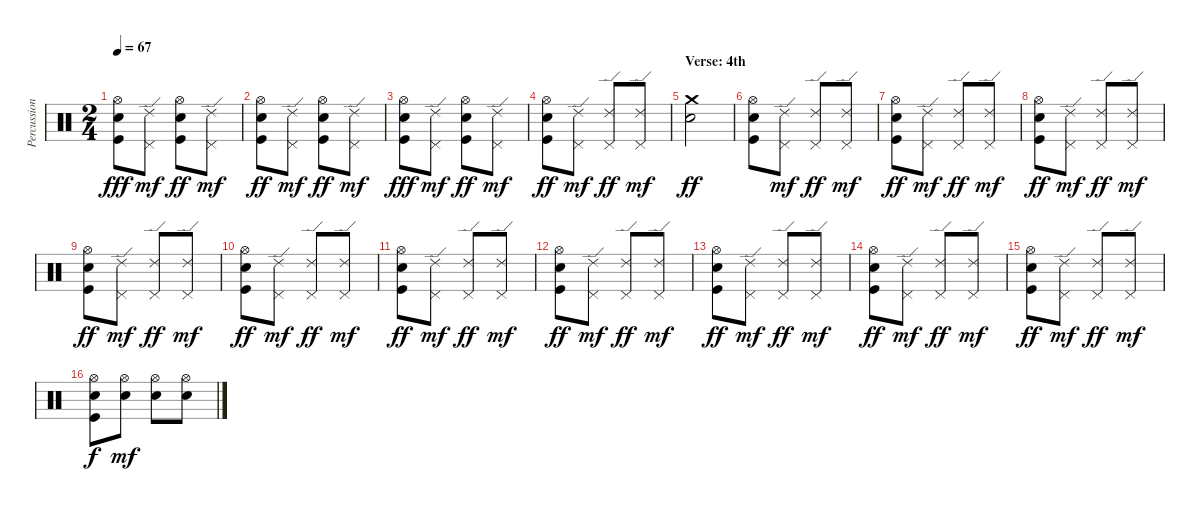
\track ("Percussions" "Percussion") {instrument percussion}
\staff {score}
\articulation defaults
\ts (2 4)
\tempo 67
\clef neutral
\ks c
("Hi-Hat (open)" "Electric Snare (hit)" "Kick (hit)").8{dy fff} ("Ride (edge) 2" "Pedal Hi-Hat (hit)").8{dy mf} ("Hi-Hat (open)" "Snare (hit) 2" "Kick (hit)").8{dy ff} ("Ride (edge) 2" "Pedal Hi-Hat (hit)").8{dy mf} |
("Hi-Hat (open)" "Snare (hit) 2" "Kick (hit)").8{dy ff} ("Ride (edge) 2" "Pedal Hi-Hat (hit)").8{dy mf} ("Hi-Hat (open)" "Snare (hit) 2" "Kick (hit)").8{dy ff} ("Ride (edge) 2" "Pedal Hi-Hat (hit)").8{dy mf} |
("Hi-Hat (open)" "Electric Snare (hit)" "Kick (hit)").8{dy fff} ("Ride (edge) 2" "Pedal Hi-Hat (hit)").8{dy mf} ("Hi-Hat (open)" "Snare (hit) 2" "Kick (hit)").8{dy ff} ("Ride (edge) 2" "Pedal Hi-Hat (hit)").8{dy mf} |
("Hi-Hat (open)" "Snare (hit) 2" "Kick (hit)").8{dy ff} ("Ride (edge) 2" "Pedal Hi-Hat (hit)").8{dy mf} ("Ride (edge) 2" "Pedal Hi-Hat (hit)").8{dy ff} ("Ride (edge) 2" "Pedal Hi-Hat (hit)").8{dy mf} |
\section ("" "Verse: 4th")
("Crash medium (hit)" "Snare (hit) 2").2{dy ff} |
("Hi-Hat (open)" "Snare (hit) 2" "Kick (hit)").8 ("Ride (edge) 2" "Pedal Hi-Hat (hit)").8{dy mf} ("Ride (edge) 2" "Pedal Hi-Hat (hit)").8{dy ff} ("Ride (edge) 2" "Pedal Hi-Hat (hit)").8{dy mf} |
("Hi-Hat (open)" "Snare (hit) 2" "Kick (hit)").8{dy ff} ("Ride (edge) 2" "Pedal Hi-Hat (hit)").8{dy mf} ("Ride (edge) 2" "Pedal Hi-Hat (hit)").8{dy ff} ("Ride (edge) 2" "Pedal Hi-Hat (hit)").8{dy mf} |
("Hi-Hat (open)" "Snare (hit) 2" "Kick (hit)").8{dy ff} ("Ride (edge) 2" "Pedal Hi-Hat (hit)").8{dy mf} ("Ride (edge) 2" "Pedal Hi-Hat (hit)").8{dy ff} ("Ride (edge) 2" "Pedal Hi-Hat (hit)").8{dy mf} |
("Hi-Hat (open)" "Snare (hit) 2" "Kick (hit)").8{dy ff} ("Ride (edge) 2" "Pedal Hi-Hat (hit)").8{dy mf} ("Ride (edge) 2" "Pedal Hi-Hat (hit)").8{dy ff} ("Ride (edge) 2" "Pedal Hi-Hat (hit)").8{dy mf} |
("Hi-Hat (open)" "Snare (hit) 2" "Kick (hit)").8{dy ff} ("Ride (edge) 2" "Pedal Hi-Hat (hit)").8{dy mf} ("Ride (edge) 2" "Pedal Hi-Hat (hit)").8{dy ff} ("Ride (edge) 2" "Pedal Hi-Hat (hit)").8{dy mf} |
("Hi-Hat (open)" "Snare (hit) 2" "Kick (hit)").8{dy ff} ("Ride (edge) 2" "Pedal Hi-Hat (hit)").8{dy mf} ("Ride (edge) 2" "Pedal Hi-Hat (hit)").8{dy ff} ("Ride (edge) 2" "Pedal Hi-Hat (hit)").8{dy mf} |
("Hi-Hat (open)" "Snare (hit) 2" "Kick (hit)").8{dy ff} ("Ride (edge) 2" "Pedal Hi-Hat (hit)").8{dy mf} ("Ride (edge) 2" "Pedal Hi-Hat (hit)").8{dy ff} ("Ride (edge) 2" "Pedal Hi-Hat (hit)").8{dy mf} |
("Hi-Hat (open)" "Snare (hit) 2" "Kick (hit)").8{dy ff} ("Ride (edge) 2" "Pedal Hi-Hat (hit)").8{dy mf} ("Ride (edge) 2" "Pedal Hi-Hat (hit)").8{dy ff} ("Ride (edge) 2" "Pedal Hi-Hat (hit)").8{dy mf} |
("Hi-Hat (open)" "Snare (hit) 2" "Kick (hit)").8{dy ff} ("Ride (edge) 2" "Pedal Hi-Hat (hit)").8{dy mf} ("Ride (edge) 2" "Pedal Hi-Hat (hit)").8{dy ff} ("Ride (edge) 2" "Pedal Hi-Hat (hit)").8{dy mf} |
("Hi-Hat (open)" "Snare (hit) 2" "Kick (hit)").8{dy ff} ("Ride (edge) 2" "Pedal Hi-Hat (hit)").8{dy mf} ("Ride (edge) 2" "Pedal Hi-Hat (hit)").8{dy ff} ("Ride (edge) 2" "Pedal Hi-Hat (hit)").8{dy mf} |
("Hi-Hat (open)" "Snare (hit) 2" "Kick (hit)").8{dy f} ("Hi-Hat (open)" "Snare (hit) 2").8{dy mf} ("Hi-Hat (open)" "Snare (hit) 2").8 ("Hi-Hat (open)" "Snare (hit) 2").8
